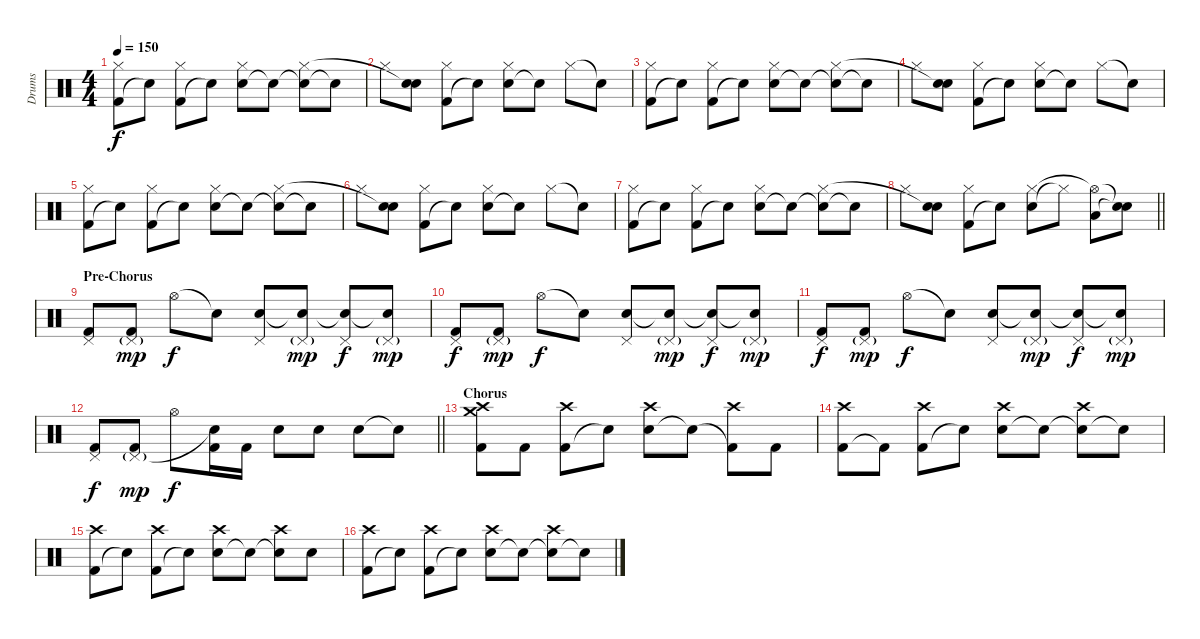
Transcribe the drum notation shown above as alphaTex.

\track ("Drums" "Drums") {instrument percussion}
\staff {score}
\articulation defaults
\ts (4 4)
\tempo 150
\clef neutral
\ks c
("Kick (hit) 2" "Hi-Hat (closed)").8{dy f} "Snare (hit)"{t}.8 ("Kick (hit) 2" "Hi-Hat (closed)").8 "Snare (hit)"{t}.8 ("Electric Snare (hit)" "Hi-Hat (closed)").8 "Snare (hit)"{t}.8 ("Snare (hit)"{t} "Hi-Hat (closed)").8 "Snare (hit)"{t}.8 |
"Hi-Hat (closed)".8 ("Electric Snare (hit)" "Snare (hit)"{t}).8 ("Kick (hit) 2" "Hi-Hat (closed)").8 "Snare (hit)"{t}.8 ("Electric Snare (hit)" "Hi-Hat (closed)").8 "Snare (hit)"{t}.8 "Hi-Hat (closed)".8 "Snare (hit)"{t}.8 |
("Kick (hit) 2" "Hi-Hat (closed)").8 "Snare (hit)"{t}.8 ("Kick (hit) 2" "Hi-Hat (closed)").8 "Snare (hit)"{t}.8 ("Electric Snare (hit)" "Hi-Hat (closed)").8 "Snare (hit)"{t}.8 ("Snare (hit)"{t} "Hi-Hat (closed)").8 "Snare (hit)"{t}.8 |
"Hi-Hat (closed)".8 ("Electric Snare (hit)" "Snare (hit)"{t}).8 ("Kick (hit) 2" "Hi-Hat (closed)").8 "Snare (hit)"{t}.8 ("Electric Snare (hit)" "Hi-Hat (closed)").8 "Snare (hit)"{t}.8 "Hi-Hat (closed)".8 "Snare (hit)"{t}.8 |
("Kick (hit) 2" "Hi-Hat (closed)").8 "Snare (hit)"{t}.8 ("Kick (hit) 2" "Hi-Hat (closed)").8 "Snare (hit)"{t}.8 ("Electric Snare (hit)" "Hi-Hat (closed)").8 "Snare (hit)"{t}.8 ("Snare (hit)"{t} "Hi-Hat (closed)").8 "Snare (hit)"{t}.8 |
"Hi-Hat (closed)".8 ("Electric Snare (hit)" "Snare (hit)"{t}).8 ("Kick (hit) 2" "Hi-Hat (closed)").8 "Snare (hit)"{t}.8 ("Electric Snare (hit)" "Hi-Hat (closed)").8 "Snare (hit)"{t}.8 "Hi-Hat (closed)".8 "Snare (hit)"{t}.8 |
("Kick (hit) 2" "Hi-Hat (closed)").8 "Snare (hit)"{t}.8 ("Kick (hit) 2" "Hi-Hat (closed)").8 "Snare (hit)"{t}.8 ("Electric Snare (hit)" "Hi-Hat (closed)").8 "Snare (hit)"{t}.8 ("Snare (hit)"{t} "Hi-Hat (closed)").8 "Snare (hit)"{t}.8 |
\barLineRight lightlight "Hi-Hat (closed)".8
("Electric Snare (hit)" "Snare (hit)"{t}).8 ("Kick (hit) 2" "Hi-Hat (closed)").8 "Snare (hit)"{t}.8 ("Electric Snare (hit)" "Hi-Hat (closed)").8 "Hi-Hat (closed)"{t}.8 ("Low Floor Tom (hit)" "Hi-Hat (open)"{t}).8 ("Snare (hit)"{t} "Snare (hit)"{t}).8 |
\section ("" "Pre-Chorus")
("Kick (hit) 2" "Pedal Hi-Hat (hit)").8 ("Kick (hit) 2" "Pedal Hi-Hat (hit)"{g}).8{dy mp} "Hi-Hat (open)".8{dy f} "Snare (hit)"{t}.8 ("Electric Snare (hit)" "Pedal Hi-Hat (hit)").8 ("Snare (hit)"{t} "Pedal Hi-Hat (hit)"{g}).8{dy mp} ("Snare (hit)"{t} "Pedal Hi-Hat (hit)").8{dy f} ("Snare (hit)"{t} "Pedal Hi-Hat (hit)"{g}).8{dy mp} |
("Kick (hit) 2" "Pedal Hi-Hat (hit)").8{dy f} ("Kick (hit) 2" "Pedal Hi-Hat (hit)"{g}).8{dy mp} "Hi-Hat (open)".8{dy f} "Snare (hit)"{t}.8 ("Electric Snare (hit)" "Pedal Hi-Hat (hit)").8 ("Snare (hit)"{t} "Pedal Hi-Hat (hit)"{g}).8{dy mp} ("Snare (hit)"{t} "Pedal Hi-Hat (hit)").8{dy f} ("Snare (hit)"{t} "Pedal Hi-Hat (hit)"{g}).8{dy mp} |
("Kick (hit) 2" "Pedal Hi-Hat (hit)").8{dy f} ("Kick (hit) 2" "Pedal Hi-Hat (hit)"{g}).8{dy mp} "Hi-Hat (open)".8{dy f} "Snare (hit)"{t}.8 ("Electric Snare (hit)" "Pedal Hi-Hat (hit)").8 ("Snare (hit)"{t} "Pedal Hi-Hat (hit)"{g}).8{dy mp} ("Snare (hit)"{t} "Pedal Hi-Hat (hit)").8{dy f} ("Snare (hit)"{t} "Pedal Hi-Hat (hit)"{g}).8{dy mp} |
\barLineRight lightlight
("Kick (hit) 2" "Pedal Hi-Hat (hit)").8{dy f} ("Kick (hit) 2" "Pedal Hi-Hat (hit)"{g}).8{dy mp} "Hi-Hat (open)".8{dy f} ("Kick (hit) 2" "Snare (hit)"{t}).16 "Kick (hit) 2".16 "Electric Snare (hit)".8 "Electric Snare (hit)".8 "Electric Snare (hit)".8 "Electric Snare (hit)"{t}.8 |
\section ("" "Chorus")
("Kick (hit) 2" "Crash medium (hit)" "Crash high (hit)").8 "Kick (hit) 2".8 ("Kick (hit) 2" "Crash high (hit)").8 "Snare (hit)"{t}.8 ("Electric Snare (hit)" "Crash high (hit)").8 "Snare (hit)"{t}.8 ("Kick (hit) 2"{t} "Crash high (hit)").8 "Kick (hit) 2".8 |
("Kick (hit) 2" "Crash high (hit)").8 "Kick (hit) 2"{t}.8 ("Kick (hit) 2" "Crash high (hit)").8 "Electric Snare (hit)"{t}.8 ("Electric Snare (hit)" "Crash high (hit)").8 "Snare (hit)"{t}.8 ("Snare (hit)"{t} "Crash high (hit)").8 "Snare (hit)"{t}.8 |
("Kick (hit) 2" "Crash high (hit)").8 "Snare (hit)"{t}.8 ("Kick (hit) 2" "Crash high (hit)").8 "Snare (hit)"{t}.8 ("Electric Snare (hit)" "Crash high (hit)").8 "Snare (hit)"{t}.8 ("Snare (hit)"{t} "Crash high (hit)").8 "Electric Snare (hit)".8 |
("Kick (hit) 2" "Crash high (hit)").8 "Snare (hit)"{t}.8 ("Kick (hit) 2" "Crash high (hit)").8 "Snare (hit)"{t}.8 ("Electric Snare (hit)" "Crash high (hit)").8 "Snare (hit)"{t}.8 ("Snare (hit)"{t} "Crash high (hit)").8 "Snare (hit)"{t}.8
